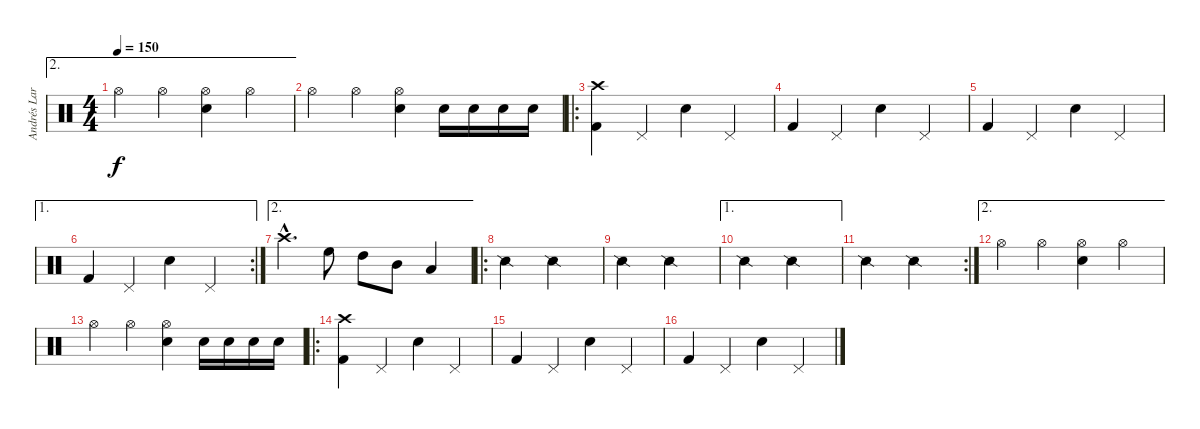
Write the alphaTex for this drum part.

\track ("Andrés Larraín (batería)" "Andrés Lar") {instrument percussion}
\staff {score}
\articulation defaults
\ae 2
\ts (4 4)
\tempo 150
\clef neutral
\ks c "Hi-Hat (open)".4{dy f} "Hi-Hat (open)".4
("Hi-Hat (open)" "Snare (hit) 2").4 "Hi-Hat (open)".4 |
"Hi-Hat (open)".4 "Hi-Hat (open)".4 ("Hi-Hat (open)" "Snare (hit) 2").4 "Snare (hit) 2".16 "Electric Snare (hit)".16 "Snare (hit) 2".16 "Electric Snare (hit)".16 |
\ro
("Crash high (hit)" "Kick (hit) 2").4 "Pedal Hi-Hat (hit)".4 "Electric Snare (hit)".4 "Pedal Hi-Hat (hit)".4 |
"Kick (hit) 2".4 "Pedal Hi-Hat (hit)".4 "Electric Snare (hit)".4 "Pedal Hi-Hat (hit)".4 |
"Kick (hit) 2".4 "Pedal Hi-Hat (hit)".4 "Electric Snare (hit)".4 "Pedal Hi-Hat (hit)".4 |
\ae 1
\rc 2 "Kick (hit) 2".4 "Pedal Hi-Hat (hit)".4 "Electric Snare (hit)".4 "Pedal Hi-Hat (hit)".4
|
\ae 2 "Crash high (hit)"{hac}.4{d} "High Floor Tom (hit)".8 "High Tom (hit)".8 "Mid Tom (hit)".8 "Low Tom (hit)".4
|
\ro "Snare (side stick) 2".2 "Snare (side stick) 2".2
|
"Snare (side stick) 2".2 "Snare (side stick) 2".2 |
\ae 1 "Snare (side stick) 2".2 "Snare (side stick) 2".2
|
\rc 2 "Snare (side stick) 2".2 "Snare (side stick) 2".2
|
\ae 2 "Hi-Hat (open)".4 "Hi-Hat (open)".4
("Hi-Hat (open)" "Snare (hit) 2").4 "Hi-Hat (open)".4 |
"Hi-Hat (open)".4 "Hi-Hat (open)".4 ("Hi-Hat (open)" "Snare (hit) 2").4 "Snare (hit) 2".16 "Electric Snare (hit)".16 "Snare (hit) 2".16 "Electric Snare (hit)".16 |
\ro
("Crash high (hit)" "Kick (hit) 2").4 "Pedal Hi-Hat (hit)".4 "Electric Snare (hit)".4 "Pedal Hi-Hat (hit)".4 |
"Kick (hit) 2".4 "Pedal Hi-Hat (hit)".4 "Electric Snare (hit)".4 "Pedal Hi-Hat (hit)".4 |
"Kick (hit) 2".4 "Pedal Hi-Hat (hit)".4 "Electric Snare (hit)".4 "Pedal Hi-Hat (hit)".4
